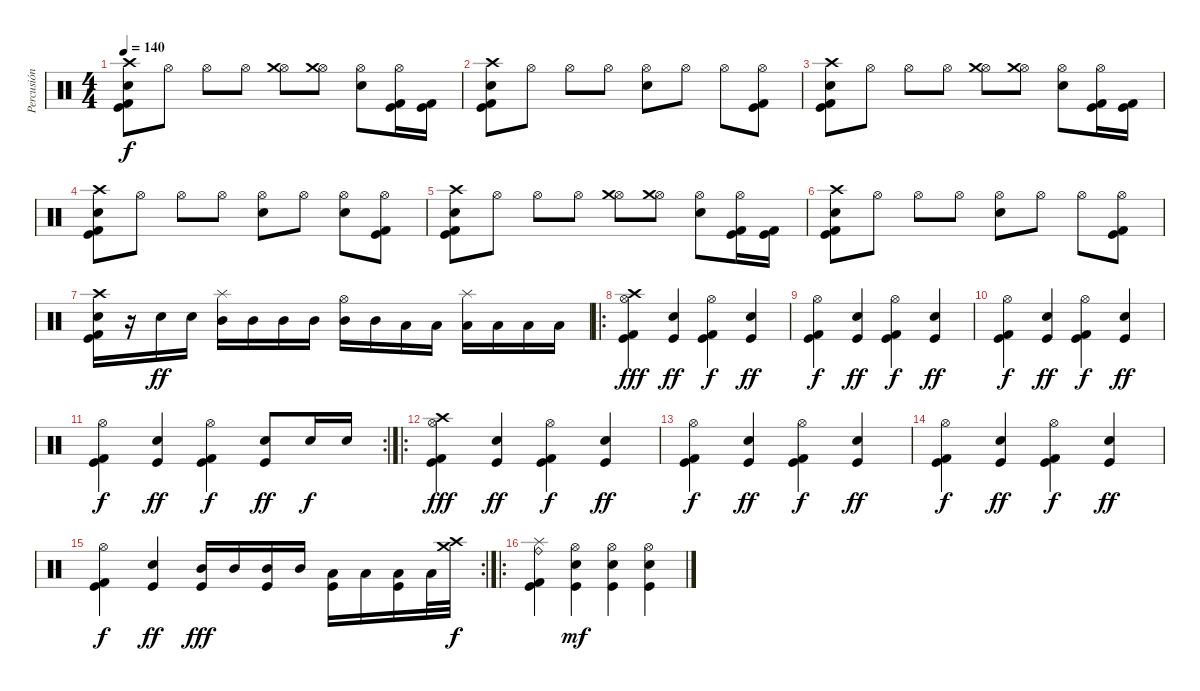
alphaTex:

\track ("Percusión" "Percusión") {instrument percussion}
\staff {score}
\articulation defaults
\ts (4 4)
\tempo 140
\clef neutral
\ks c
("Crash high (hit)" "Electric Snare (hit)" "Kick (hit)" "Kick (hit) 2").8{dy f} "Hi-Hat (open)".8 "Hi-Hat (open)".8 "Hi-Hat (open)".8 ("Hi-Hat (open)" "Crash medium (hit)").8 ("Hi-Hat (open)" "Crash medium (hit)").8 ("Hi-Hat (open)" "Electric Snare (hit)").8 ("Hi-Hat (open)" "Kick (hit) 2" "Kick (hit)").16 ("Kick (hit) 2" "Kick (hit)").16 |
("Crash high (hit)" "Electric Snare (hit)" "Kick (hit)" "Kick (hit) 2").8 "Hi-Hat (open)".8 "Hi-Hat (open)".8 "Hi-Hat (open)".8 ("Hi-Hat (open)" "Electric Snare (hit)").8 "Hi-Hat (open)".8 "Hi-Hat (open)".8 ("Hi-Hat (open)" "Kick (hit) 2" "Kick (hit)").8 |
("Crash high (hit)" "Electric Snare (hit)" "Kick (hit)" "Kick (hit) 2").8 "Hi-Hat (open)".8 "Hi-Hat (open)".8 "Hi-Hat (open)".8 ("Hi-Hat (open)" "Crash medium (hit)").8 ("Hi-Hat (open)" "Crash medium (hit)").8 ("Hi-Hat (open)" "Electric Snare (hit)").8 ("Hi-Hat (open)" "Kick (hit) 2" "Kick (hit)").16 ("Kick (hit) 2" "Kick (hit)").16 |
("Crash high (hit)" "Electric Snare (hit)" "Kick (hit)" "Kick (hit) 2").8 "Hi-Hat (open)".8 "Hi-Hat (open)".8 "Hi-Hat (open)".8 ("Hi-Hat (open)" "Electric Snare (hit)").8 "Hi-Hat (open)".8 ("Hi-Hat (open)" "Electric Snare (hit)").8 ("Hi-Hat (open)" "Kick (hit) 2" "Kick (hit)").8 |
("Crash high (hit)" "Electric Snare (hit)" "Kick (hit)" "Kick (hit) 2").8 "Hi-Hat (open)".8 "Hi-Hat (open)".8 "Hi-Hat (open)".8 ("Hi-Hat (open)" "Crash medium (hit)").8 ("Hi-Hat (open)" "Crash medium (hit)").8 ("Hi-Hat (open)" "Electric Snare (hit)").8 ("Hi-Hat (open)" "Kick (hit) 2" "Kick (hit)").16 ("Kick (hit) 2" "Kick (hit)").16 |
("Crash high (hit)" "Electric Snare (hit)" "Kick (hit)" "Kick (hit) 2").8 "Hi-Hat (open)".8 "Hi-Hat (open)".8 "Hi-Hat (open)".8 ("Hi-Hat (open)" "Electric Snare (hit)").8 "Hi-Hat (open)".8 "Hi-Hat (open)".8 ("Hi-Hat (open)" "Kick (hit) 2" "Kick (hit)").8 |
("Crash high (hit)" "Electric Snare (hit)" "Kick (hit)" "Kick (hit) 2").16 r.16 "Electric Snare (hit)".16{dy ff} "Electric Snare (hit)".16 ("Splash (hit)" "Mid Tom (hit)").16 "Mid Tom (hit)".16 "Mid Tom (hit)".16 "Mid Tom (hit)".16 ("Hi-Hat (open)" "Mid Tom (hit)").16 "Mid Tom (hit)".16 "Low Tom (hit)".16 "Low Tom (hit)".16 ("Splash (hit)" "Low Floor Tom (hit)").16 "Low Floor Tom (hit)".16 "Low Floor Tom (hit)".16 "Low Floor Tom (hit)".16 |
\ro
("Crash high (hit)" "Hi-Hat (open)" "Kick (hit) 2" "Kick (hit)").4{dy fff} ("Electric Snare (hit)" "Kick (hit)").4{dy ff} ("Hi-Hat (open)" "Kick (hit) 2" "Kick (hit)").4{dy f} ("Electric Snare (hit)" "Kick (hit)").4{dy ff} |
("Hi-Hat (open)" "Kick (hit) 2" "Kick (hit)").4{dy f} ("Electric Snare (hit)" "Kick (hit)").4{dy ff} ("Hi-Hat (open)" "Kick (hit) 2" "Kick (hit)").4{dy f} ("Electric Snare (hit)" "Kick (hit)").4{dy ff} |
("Hi-Hat (open)" "Kick (hit) 2" "Kick (hit)").4{dy f} ("Electric Snare (hit)" "Kick (hit)").4{dy ff} ("Hi-Hat (open)" "Kick (hit) 2" "Kick (hit)").4{dy f} ("Electric Snare (hit)" "Kick (hit)").4{dy ff} |
\rc 2
("Hi-Hat (open)" "Kick (hit) 2" "Kick (hit)").4{dy f} ("Electric Snare (hit)" "Kick (hit)").4{dy ff} ("Hi-Hat (open)" "Kick (hit) 2" "Kick (hit)").4{dy f} ("Electric Snare (hit)" "Kick (hit)").8{dy ff} "Electric Snare (hit)".16{dy f} "Electric Snare (hit)".16 |
\ro
("Crash high (hit)" "Hi-Hat (open)" "Kick (hit) 2" "Kick (hit)").4{dy fff} ("Electric Snare (hit)" "Kick (hit)").4{dy ff} ("Hi-Hat (open)" "Kick (hit) 2" "Kick (hit)").4{dy f} ("Electric Snare (hit)" "Kick (hit)").4{dy ff} |
("Hi-Hat (open)" "Kick (hit) 2" "Kick (hit)").4{dy f} ("Electric Snare (hit)" "Kick (hit)").4{dy ff} ("Hi-Hat (open)" "Kick (hit) 2" "Kick (hit)").4{dy f} ("Electric Snare (hit)" "Kick (hit)").4{dy ff} |
("Hi-Hat (open)" "Kick (hit) 2" "Kick (hit)").4{dy f} ("Electric Snare (hit)" "Kick (hit)").4{dy ff} ("Hi-Hat (open)" "Kick (hit) 2" "Kick (hit)").4{dy f} ("Electric Snare (hit)" "Kick (hit)").4{dy ff} |
\rc 2
("Hi-Hat (open)" "Kick (hit) 2" "Kick (hit)").4{dy f} ("Electric Snare (hit)" "Kick (hit)").4{dy ff} ("Mid Tom (hit)" "Kick (hit)").16{dy fff} "Mid Tom (hit)".16 ("Mid Tom (hit)" "Kick (hit)").16 "Mid Tom (hit)".16 ("Low Tom (hit)" "Kick (hit)").16 "Low Floor Tom (hit)".16 ("Low Floor Tom (hit)" "Kick (hit)").16 "Low Floor Tom (hit)".32 ("Crash medium (hit)" "Crash high (hit)").32{dy f} |
\ro
("Splash (hit)" "Ride (bell)" "Kick (hit) 2" "Kick (hit)").4 ("Hi-Hat (open)" "Electric Snare (hit)" "Kick (hit)").4{dy mf} ("Hi-Hat (open)" "Electric Snare (hit)" "Kick (hit)").4 ("Hi-Hat (open)" "Electric Snare (hit)" "Kick (hit)").4
